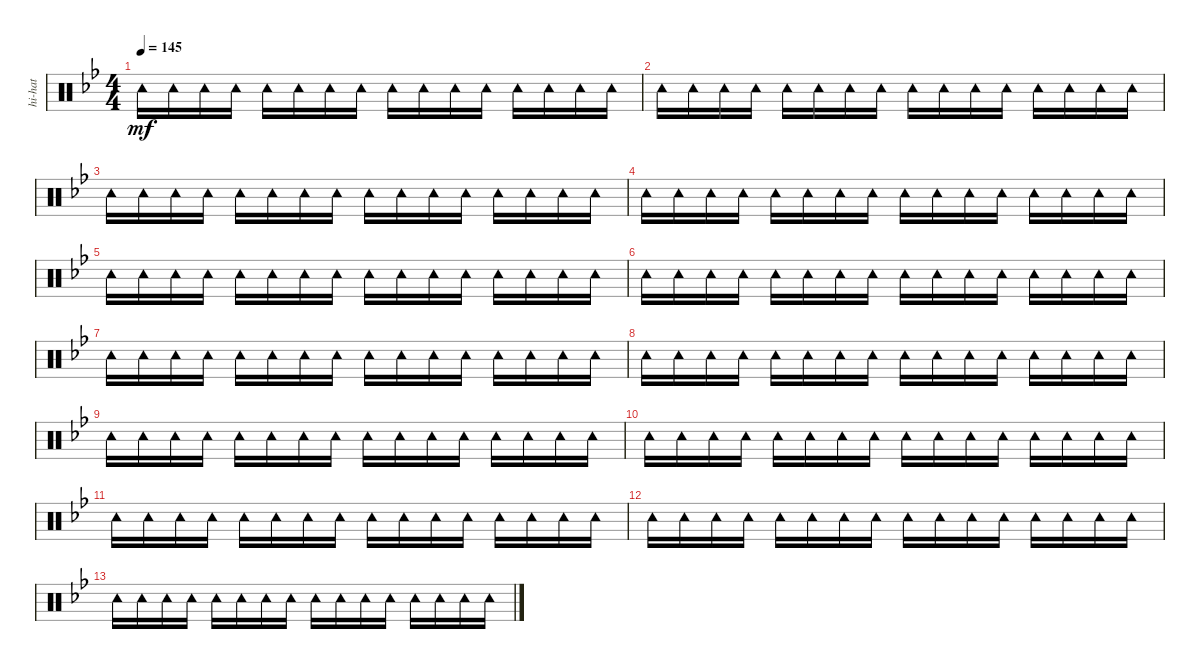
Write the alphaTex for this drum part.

\track ("hi-hat" "hi-hat") {instrument percussion}
\staff {score}
\articulation defaults
\ts (4 4)
\tempo 145
\clef neutral
\ks bb "Tambourine (hit)".16{dy mf} "Tambourine (hit)".16 "Tambourine (hit)".16 "Tambourine (hit)".16 "Tambourine (hit)".16 "Tambourine (hit)".16 "Tambourine (hit)".16 "Tambourine (hit)".16 "Tambourine (hit)".16 "Tambourine (hit)".16 "Tambourine (hit)".16 "Tambourine (hit)".16 "Tambourine (hit)".16 "Tambourine (hit)".16 "Tambourine (hit)".16 "Tambourine (hit)".16
|
"Tambourine (hit)".16 "Tambourine (hit)".16 "Tambourine (hit)".16 "Tambourine (hit)".16 "Tambourine (hit)".16 "Tambourine (hit)".16 "Tambourine (hit)".16 "Tambourine (hit)".16 "Tambourine (hit)".16 "Tambourine (hit)".16 "Tambourine (hit)".16 "Tambourine (hit)".16 "Tambourine (hit)".16 "Tambourine (hit)".16 "Tambourine (hit)".16 "Tambourine (hit)".16 |
"Tambourine (hit)".16 "Tambourine (hit)".16 "Tambourine (hit)".16 "Tambourine (hit)".16 "Tambourine (hit)".16 "Tambourine (hit)".16 "Tambourine (hit)".16 "Tambourine (hit)".16 "Tambourine (hit)".16 "Tambourine (hit)".16 "Tambourine (hit)".16 "Tambourine (hit)".16 "Tambourine (hit)".16 "Tambourine (hit)".16 "Tambourine (hit)".16 "Tambourine (hit)".16 |
"Tambourine (hit)".16 "Tambourine (hit)".16 "Tambourine (hit)".16 "Tambourine (hit)".16 "Tambourine (hit)".16 "Tambourine (hit)".16 "Tambourine (hit)".16 "Tambourine (hit)".16 "Tambourine (hit)".16 "Tambourine (hit)".16 "Tambourine (hit)".16 "Tambourine (hit)".16 "Tambourine (hit)".16 "Tambourine (hit)".16 "Tambourine (hit)".16 "Tambourine (hit)".16 |
"Tambourine (hit)".16 "Tambourine (hit)".16 "Tambourine (hit)".16 "Tambourine (hit)".16 "Tambourine (hit)".16 "Tambourine (hit)".16 "Tambourine (hit)".16 "Tambourine (hit)".16 "Tambourine (hit)".16 "Tambourine (hit)".16 "Tambourine (hit)".16 "Tambourine (hit)".16 "Tambourine (hit)".16 "Tambourine (hit)".16 "Tambourine (hit)".16 "Tambourine (hit)".16 |
"Tambourine (hit)".16 "Tambourine (hit)".16 "Tambourine (hit)".16 "Tambourine (hit)".16 "Tambourine (hit)".16 "Tambourine (hit)".16 "Tambourine (hit)".16 "Tambourine (hit)".16 "Tambourine (hit)".16 "Tambourine (hit)".16 "Tambourine (hit)".16 "Tambourine (hit)".16 "Tambourine (hit)".16 "Tambourine (hit)".16 "Tambourine (hit)".16 "Tambourine (hit)".16 |
"Tambourine (hit)".16 "Tambourine (hit)".16 "Tambourine (hit)".16 "Tambourine (hit)".16 "Tambourine (hit)".16 "Tambourine (hit)".16 "Tambourine (hit)".16 "Tambourine (hit)".16 "Tambourine (hit)".16 "Tambourine (hit)".16 "Tambourine (hit)".16 "Tambourine (hit)".16 "Tambourine (hit)".16 "Tambourine (hit)".16 "Tambourine (hit)".16 "Tambourine (hit)".16 |
"Tambourine (hit)".16 "Tambourine (hit)".16 "Tambourine (hit)".16 "Tambourine (hit)".16 "Tambourine (hit)".16 "Tambourine (hit)".16 "Tambourine (hit)".16 "Tambourine (hit)".16 "Tambourine (hit)".16 "Tambourine (hit)".16 "Tambourine (hit)".16 "Tambourine (hit)".16 "Tambourine (hit)".16 "Tambourine (hit)".16 "Tambourine (hit)".16 "Tambourine (hit)".16 |
"Tambourine (hit)".16 "Tambourine (hit)".16 "Tambourine (hit)".16 "Tambourine (hit)".16 "Tambourine (hit)".16 "Tambourine (hit)".16 "Tambourine (hit)".16 "Tambourine (hit)".16 "Tambourine (hit)".16 "Tambourine (hit)".16 "Tambourine (hit)".16 "Tambourine (hit)".16 "Tambourine (hit)".16 "Tambourine (hit)".16 "Tambourine (hit)".16 "Tambourine (hit)".16 |
"Tambourine (hit)".16 "Tambourine (hit)".16 "Tambourine (hit)".16 "Tambourine (hit)".16 "Tambourine (hit)".16 "Tambourine (hit)".16 "Tambourine (hit)".16 "Tambourine (hit)".16 "Tambourine (hit)".16 "Tambourine (hit)".16 "Tambourine (hit)".16 "Tambourine (hit)".16 "Tambourine (hit)".16 "Tambourine (hit)".16 "Tambourine (hit)".16 "Tambourine (hit)".16 |
"Tambourine (hit)".16 "Tambourine (hit)".16 "Tambourine (hit)".16 "Tambourine (hit)".16 "Tambourine (hit)".16 "Tambourine (hit)".16 "Tambourine (hit)".16 "Tambourine (hit)".16 "Tambourine (hit)".16 "Tambourine (hit)".16 "Tambourine (hit)".16 "Tambourine (hit)".16 "Tambourine (hit)".16 "Tambourine (hit)".16 "Tambourine (hit)".16 "Tambourine (hit)".16 |
"Tambourine (hit)".16 "Tambourine (hit)".16 "Tambourine (hit)".16 "Tambourine (hit)".16 "Tambourine (hit)".16 "Tambourine (hit)".16 "Tambourine (hit)".16 "Tambourine (hit)".16 "Tambourine (hit)".16 "Tambourine (hit)".16 "Tambourine (hit)".16 "Tambourine (hit)".16 "Tambourine (hit)".16 "Tambourine (hit)".16 "Tambourine (hit)".16 "Tambourine (hit)".16 |
"Tambourine (hit)".16 "Tambourine (hit)".16 "Tambourine (hit)".16 "Tambourine (hit)".16 "Tambourine (hit)".16 "Tambourine (hit)".16 "Tambourine (hit)".16 "Tambourine (hit)".16 "Tambourine (hit)".16 "Tambourine (hit)".16 "Tambourine (hit)".16 "Tambourine (hit)".16 "Tambourine (hit)".16 "Tambourine (hit)".16 "Tambourine (hit)".16 "Tambourine (hit)".16
